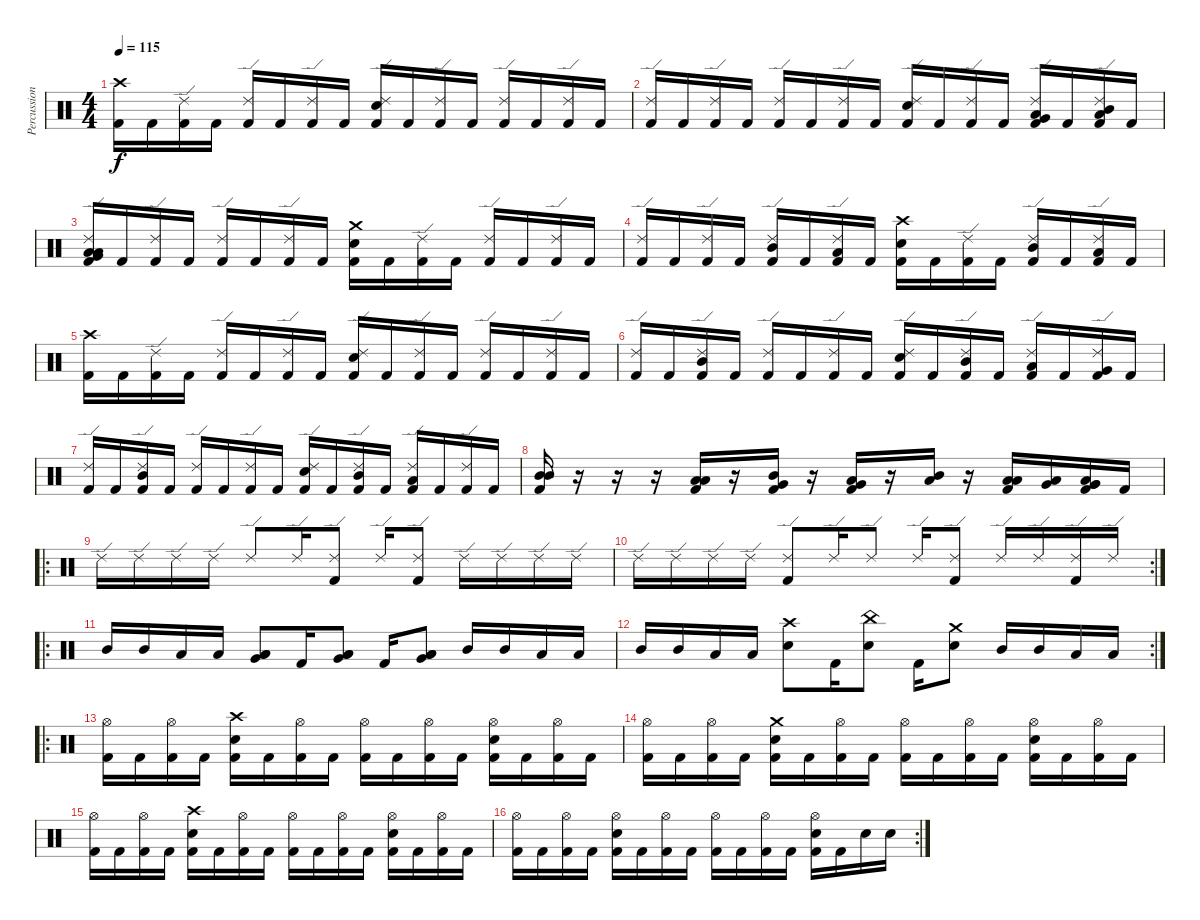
\track ("Percussion" "Percussion") {instrument percussion}
\staff {score}
\articulation defaults
\ts (4 4)
\tempo 115
\clef neutral
\ks c
("Crash high (hit)" "Kick (hit) 2").16{dy f} "Kick (hit) 2".16 ("Ride (edge) 2" "Kick (hit) 2").16 "Kick (hit) 2".16 ("Ride (edge) 2" "Kick (hit) 2").16 "Kick (hit) 2".16 ("Ride (edge) 2" "Kick (hit) 2").16 "Kick (hit) 2".16 ("Ride (edge) 2" "Snare (hit) 2" "Kick (hit) 2").16 "Kick (hit) 2".16 ("Ride (edge) 2" "Kick (hit) 2").16 "Kick (hit) 2".16 ("Ride (edge) 2" "Kick (hit) 2").16 "Kick (hit) 2".16 ("Ride (edge) 2" "Kick (hit) 2").16 "Kick (hit) 2".16 |
("Ride (edge) 2" "Kick (hit) 2").16 "Kick (hit) 2".16 ("Ride (edge) 2" "Kick (hit) 2").16 "Kick (hit) 2".16 ("Ride (edge) 2" "Kick (hit) 2").16 "Kick (hit) 2".16 ("Ride (edge) 2" "Kick (hit) 2").16 "Kick (hit) 2".16 ("Ride (edge) 2" "Snare (hit) 2" "Kick (hit) 2").16 "Kick (hit) 2".16 ("Ride (edge) 2" "Kick (hit) 2").16 "Kick (hit) 2".16 ("Ride (edge) 2" "Low Tom (hit)" "Very Low Tom (hit)" "Kick (hit) 2").16 "Kick (hit) 2".16 ("Ride (edge) 2" "Mid Tom (hit)" "Low Tom (hit)" "Kick (hit) 2").16 "Kick (hit) 2".16 |
("Ride (edge) 2" "Low Tom (hit)" "Low Floor Tom (hit)" "Very Low Tom (hit)" "Kick (hit) 2").16 "Kick (hit) 2".16 ("Ride (edge) 2" "Kick (hit) 2").16 "Kick (hit) 2".16 ("Ride (edge) 2" "Kick (hit) 2").16 "Kick (hit) 2".16 ("Ride (edge) 2" "Kick (hit) 2").16 "Kick (hit) 2".16 ("Crash medium (hit)" "Snare (hit) 2" "Kick (hit) 2").16 "Kick (hit) 2".16 ("Ride (edge) 2" "Kick (hit) 2").16 "Kick (hit) 2".16 ("Ride (edge) 2" "Kick (hit) 2").16 "Kick (hit) 2".16 ("Ride (edge) 2" "Kick (hit) 2").16 "Kick (hit) 2".16 |
("Ride (edge) 2" "Kick (hit) 2").16 "Kick (hit) 2".16 ("Ride (edge) 2" "Kick (hit) 2").16 "Kick (hit) 2".16 ("Ride (edge) 2" "Mid Tom (hit)" "Kick (hit) 2").16 "Kick (hit) 2".16 ("Ride (edge) 2" "Low Tom (hit)" "Kick (hit) 2").16 "Kick (hit) 2".16 ("Crash high (hit)" "Snare (hit) 2" "Kick (hit) 2").16 "Kick (hit) 2".16 ("Ride (edge) 2" "Kick (hit) 2").16 "Kick (hit) 2".16 ("Ride (edge) 2" "Mid Tom (hit)" "Kick (hit) 2").16 "Kick (hit) 2".16 ("Ride (edge) 2" "Low Tom (hit)" "Kick (hit) 2").16 "Kick (hit) 2".16 |
("Crash high (hit)" "Kick (hit) 2").16 "Kick (hit) 2".16 ("Ride (edge) 2" "Kick (hit) 2").16 "Kick (hit) 2".16 ("Ride (edge) 2" "Kick (hit) 2").16 "Kick (hit) 2".16 ("Ride (edge) 2" "Kick (hit) 2").16 "Kick (hit) 2".16 ("Ride (edge) 2" "Snare (hit) 2" "Kick (hit) 2").16 "Kick (hit) 2".16 ("Ride (edge) 2" "Kick (hit) 2").16 "Kick (hit) 2".16 ("Ride (edge) 2" "Kick (hit) 2").16 "Kick (hit) 2".16 ("Ride (edge) 2" "Kick (hit) 2").16 "Kick (hit) 2".16 |
("Ride (edge) 2" "Kick (hit) 2").16 "Kick (hit) 2".16 ("Ride (edge) 2" "Mid Tom (hit)" "Kick (hit) 2").16 "Kick (hit) 2".16 ("Ride (edge) 2" "Kick (hit) 2").16 "Kick (hit) 2".16 ("Ride (edge) 2" "Kick (hit) 2").16 "Kick (hit) 2".16 ("Ride (edge) 2" "Snare (hit) 2" "Kick (hit) 2").16 "Kick (hit) 2".16 ("Ride (edge) 2" "Mid Tom (hit)" "Kick (hit) 2").16 "Kick (hit) 2".16 ("Ride (edge) 2" "Low Tom (hit)" "Kick (hit) 2").16 "Kick (hit) 2".16 ("Ride (edge) 2" "Very Low Tom (hit)" "Kick (hit) 2").16 "Kick (hit) 2".16 |
("Ride (edge) 2" "Kick (hit) 2").16 "Kick (hit) 2".16 ("Ride (edge) 2" "Mid Tom (hit)" "Kick (hit) 2").16 "Kick (hit) 2".16 ("Ride (edge) 2" "Kick (hit) 2").16 "Kick (hit) 2".16 ("Ride (edge) 2" "Kick (hit) 2").16 "Kick (hit) 2".16 ("Ride (edge) 2" "Snare (hit) 2" "Kick (hit) 2").16 "Kick (hit) 2".16 ("Ride (edge) 2" "Mid Tom (hit)" "Kick (hit) 2").16 "Kick (hit) 2".16 ("Ride (edge) 2" "Low Tom (hit)" "Kick (hit) 2").16 "Kick (hit) 2".16 ("Ride (edge) 2" "Kick (hit) 2").16 "Kick (hit) 2".16 |
("Mid Tom (hit)" "Mid Tom (hit)" "Kick (hit) 2").16 r.16 r.16 r.16 ("Low Tom (hit)" "Low Tom (hit)" "Kick (hit) 2").16 r.16 ("Very Low Tom (hit)" "Mid Tom (hit)" "Kick (hit) 2").16 r.16 ("Very Low Tom (hit)" "Low Tom (hit)" "Kick (hit) 2").16 r.16 ("Low Tom (hit)" "Mid Tom (hit)").16 r.16 ("Low Tom (hit)" "Low Tom (hit)" "Kick (hit) 2").16 ("Very Low Tom (hit)" "Low Tom (hit)").16 ("Low Floor Tom (hit)" "Very Low Tom (hit)" "Very Low Tom (hit)" "Kick (hit) 2").16 "Kick (hit) 2".16 |
\ro "Ride (edge) 2".16 "Ride (edge) 2".16 "Ride (edge) 2".16 "Ride (edge) 2".16 "Ride (edge) 2".8 "Ride (edge) 2".16
("Kick (hit) 2" "Ride (edge) 2").8 "Ride (edge) 2".16 ("Kick (hit) 2" "Ride (edge) 2").8 "Ride (edge) 2".16 "Ride (edge) 2".16 "Ride (edge) 2".16 "Ride (edge) 2".16 |
\rc 2 "Ride (edge) 2".16 "Ride (edge) 2".16 "Ride (edge) 2".16 "Ride (edge) 2".16
("Kick (hit) 2" "Ride (edge) 2").8 "Ride (edge) 2".16 "Ride (edge) 2".8 "Ride (edge) 2".16 ("Kick (hit) 2" "Ride (edge) 2").8 "Ride (edge) 2".16 "Ride (edge) 2".16 ("Kick (hit) 2" "Ride (edge) 2").16 "Ride (edge) 2".16 |
\ro "Mid Tom (hit)".16 "Mid Tom (hit)".16 "Low Tom (hit)".16 "Low Tom (hit)".16
("Low Tom (hit)" "Very Low Tom (hit)" "Low Floor Tom (hit)").8 "Kick (hit) 2".16 ("Low Tom (hit)" "Very Low Tom (hit)" "Low Floor Tom (hit)").8 "Kick (hit) 2".16 ("Low Tom (hit)" "Very Low Tom (hit)" "Low Floor Tom (hit)").8 "Mid Tom (hit)".16 "Mid Tom (hit)".16 "Low Tom (hit)".16 "Low Tom (hit)".16 |
\rc 2 "Mid Tom (hit)".16 "Mid Tom (hit)".16 "Low Tom (hit)".16 "Low Tom (hit)".16
("Crash high (hit)" "Snare (hit) 2").8 "Kick (hit) 2".16 ("China (hit)" "Snare (hit) 2").8 "Kick (hit) 2".16 ("Crash medium (hit)" "Snare (hit) 2").8 "Mid Tom (hit)".16 "Mid Tom (hit)".16 "Low Tom (hit)".16 "Low Tom (hit)".16 |
\ro
("Hi-Hat (open)" "Kick (hit) 2").16 "Kick (hit) 2".16 ("Hi-Hat (open)" "Kick (hit) 2").16 "Kick (hit) 2".16 ("Crash high (hit)" "Snare (hit) 2" "Kick (hit) 2").16 "Kick (hit) 2".16 ("Hi-Hat (open)" "Kick (hit) 2").16 "Kick (hit) 2".16 ("Hi-Hat (open)" "Kick (hit) 2").16 "Kick (hit) 2".16 ("Hi-Hat (open)" "Kick (hit) 2").16 "Kick (hit) 2".16 ("Hi-Hat (open)" "Snare (hit) 2" "Kick (hit) 2").16 "Kick (hit) 2".16 ("Hi-Hat (open)" "Kick (hit) 2").16 "Kick (hit) 2".16 |
("Hi-Hat (open)" "Kick (hit) 2").16 "Kick (hit) 2".16 ("Hi-Hat (open)" "Kick (hit) 2").16 "Kick (hit) 2".16 ("Crash medium (hit)" "Snare (hit) 2" "Kick (hit) 2").16 "Kick (hit) 2".16 ("Hi-Hat (open)" "Kick (hit) 2").16 "Kick (hit) 2".16 ("Hi-Hat (open)" "Kick (hit) 2").16 "Kick (hit) 2".16 ("Hi-Hat (open)" "Kick (hit) 2").16 "Kick (hit) 2".16 ("Hi-Hat (open)" "Snare (hit) 2" "Kick (hit) 2").16 "Kick (hit) 2".16 ("Hi-Hat (open)" "Kick (hit) 2").16 "Kick (hit) 2".16 |
("Hi-Hat (open)" "Kick (hit) 2").16 "Kick (hit) 2".16 ("Hi-Hat (open)" "Kick (hit) 2").16 "Kick (hit) 2".16 ("Crash high (hit)" "Snare (hit) 2" "Kick (hit) 2").16 "Kick (hit) 2".16 ("Hi-Hat (open)" "Kick (hit) 2").16 "Kick (hit) 2".16 ("Hi-Hat (open)" "Kick (hit) 2").16 "Kick (hit) 2".16 ("Hi-Hat (open)" "Kick (hit) 2").16 "Kick (hit) 2".16 ("Hi-Hat (open)" "Snare (hit) 2" "Kick (hit) 2").16 "Kick (hit) 2".16 ("Hi-Hat (open)" "Kick (hit) 2").16 "Kick (hit) 2".16 |
\rc 2
("Hi-Hat (open)" "Kick (hit) 2").16 "Kick (hit) 2".16 ("Hi-Hat (open)" "Kick (hit) 2").16 "Kick (hit) 2".16 ("Hi-Hat (open)" "Snare (hit) 2" "Kick (hit) 2").16 "Kick (hit) 2".16 ("Hi-Hat (open)" "Kick (hit) 2").16 "Kick (hit) 2".16 ("Hi-Hat (open)" "Kick (hit) 2").16 "Kick (hit) 2".16 ("Hi-Hat (open)" "Kick (hit) 2").16 "Kick (hit) 2".16 ("Hi-Hat (open)" "Snare (hit) 2" "Kick (hit) 2").16 "Kick (hit) 2".16 "Snare (hit) 2".16 "Snare (hit) 2".16
